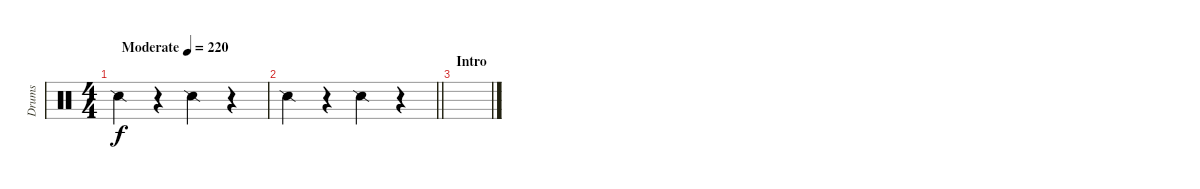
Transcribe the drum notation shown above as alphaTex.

\track ("Drums" "Drums") {instrument percussion}
\staff {score}
\articulation defaults
\ts (4 4)
\tempo (220 "Moderate")
\clef neutral
\ks c "Snare (side stick) 2".4{dy f}
r.4 "Snare (side stick) 2".4 r.4 |
\barLineRight lightlight "Snare (side stick) 2".4
r.4 "Snare (side stick) 2".4 r.4 |
\section ("" "Intro")
